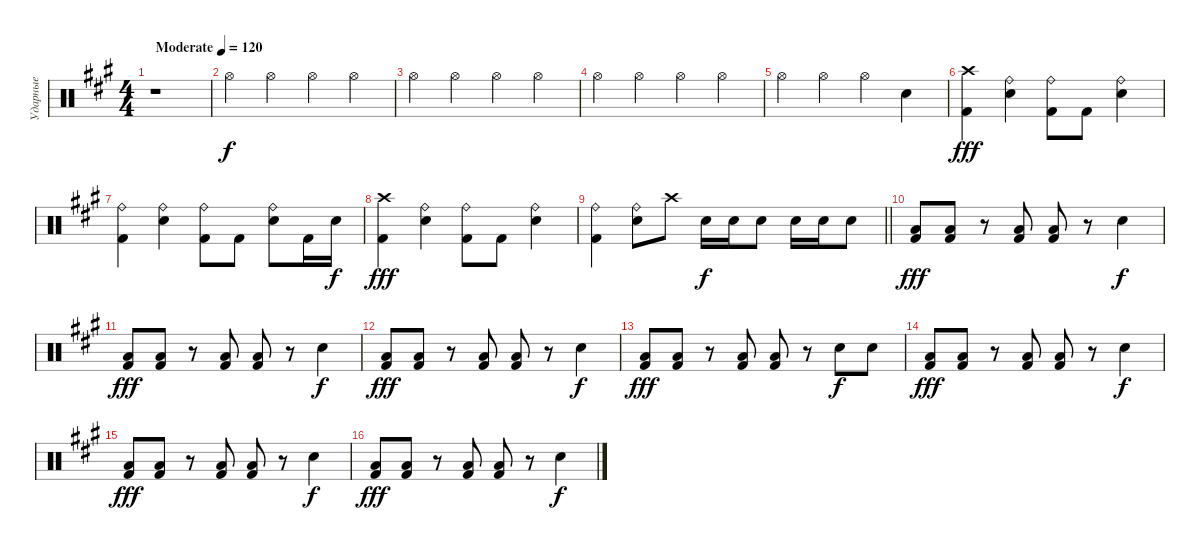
\track ("Ударные" "Ударные") {instrument percussion}
\staff {score}
\articulation defaults
\ts (4 4)
\tempo (120 "Moderate")
\clef neutral
\ks a
r.1{dy f} |
"Hi-Hat (open)".4 "Hi-Hat (open)".4 "Hi-Hat (open)".4 "Hi-Hat (open)".4 |
"Hi-Hat (open)".4 "Hi-Hat (open)".4 "Hi-Hat (open)".4 "Hi-Hat (open)".4 |
"Hi-Hat (open)".4 "Hi-Hat (open)".4 "Hi-Hat (open)".4 "Hi-Hat (open)".4 |
"Hi-Hat (open)".4 "Hi-Hat (open)".4 "Hi-Hat (open)".4 "Snare (hit) 2".4 |
("Kick (hit) 2" "Crash high (hit)").4{dy fff} ("Snare (hit) 2" "Ride (bell)").4 ("Kick (hit) 2" "Ride (bell)").8 "Kick (hit) 2".8 ("Snare (hit) 2" "Ride (bell)").4 |
("Kick (hit) 2" "Ride (bell)").4 ("Snare (hit) 2" "Ride (bell)").4 ("Kick (hit) 2" "Ride (bell)").8 "Kick (hit) 2".8 ("Snare (hit) 2" "Ride (bell)").8 "Kick (hit) 2".16 "Snare (hit) 2".16{dy f} |
("Kick (hit) 2" "Crash high (hit)").4{dy fff} ("Snare (hit) 2" "Ride (bell)").4 ("Kick (hit) 2" "Ride (bell)").8 "Kick (hit) 2".8 ("Snare (hit) 2" "Ride (bell)").4 |
\barLineRight lightlight
("Kick (hit) 2" "Ride (bell)").4 ("Snare (hit) 2" "Ride (bell)").8 "Crash high (hit)".8 "Snare (hit) 2".16{dy f} "Snare (hit) 2".16 "Snare (hit) 2".8 "Snare (hit) 2".16 "Snare (hit) 2".16 "Snare (hit) 2".8 |
("Kick (hit) 2" "Low Floor Tom (hit)").8{dy fff} ("Kick (hit) 2" "Low Floor Tom (hit)").8 r.8 ("Kick (hit) 2" "Low Floor Tom (hit)").8 ("Kick (hit) 2" "Low Floor Tom (hit)").8 r.8 "Snare (hit) 2".4{dy f} |
("Kick (hit) 2" "Low Floor Tom (hit)").8{dy fff} ("Kick (hit) 2" "Low Floor Tom (hit)").8 r.8 ("Kick (hit) 2" "Low Floor Tom (hit)").8 ("Kick (hit) 2" "Low Floor Tom (hit)").8 r.8 "Snare (hit) 2".4{dy f} |
("Kick (hit) 2" "Low Floor Tom (hit)").8{dy fff} ("Kick (hit) 2" "Low Floor Tom (hit)").8 r.8 ("Kick (hit) 2" "Low Floor Tom (hit)").8 ("Kick (hit) 2" "Low Floor Tom (hit)").8 r.8 "Snare (hit) 2".4{dy f} |
("Kick (hit) 2" "Low Floor Tom (hit)").8{dy fff} ("Kick (hit) 2" "Low Floor Tom (hit)").8 r.8 ("Kick (hit) 2" "Low Floor Tom (hit)").8 ("Kick (hit) 2" "Low Floor Tom (hit)").8 r.8 "Snare (hit) 2".8{dy f} "Snare (hit) 2".8 |
("Kick (hit) 2" "Low Floor Tom (hit)").8{dy fff} ("Kick (hit) 2" "Low Floor Tom (hit)").8 r.8 ("Kick (hit) 2" "Low Floor Tom (hit)").8 ("Kick (hit) 2" "Low Floor Tom (hit)").8 r.8 "Snare (hit) 2".4{dy f} |
("Kick (hit) 2" "Low Floor Tom (hit)").8{dy fff} ("Kick (hit) 2" "Low Floor Tom (hit)").8 r.8 ("Kick (hit) 2" "Low Floor Tom (hit)").8 ("Kick (hit) 2" "Low Floor Tom (hit)").8 r.8 "Snare (hit) 2".4{dy f} |
("Kick (hit) 2" "Low Floor Tom (hit)").8{dy fff} ("Kick (hit) 2" "Low Floor Tom (hit)").8 r.8 ("Kick (hit) 2" "Low Floor Tom (hit)").8 ("Kick (hit) 2" "Low Floor Tom (hit)").8 r.8 "Snare (hit) 2".4{dy f}
